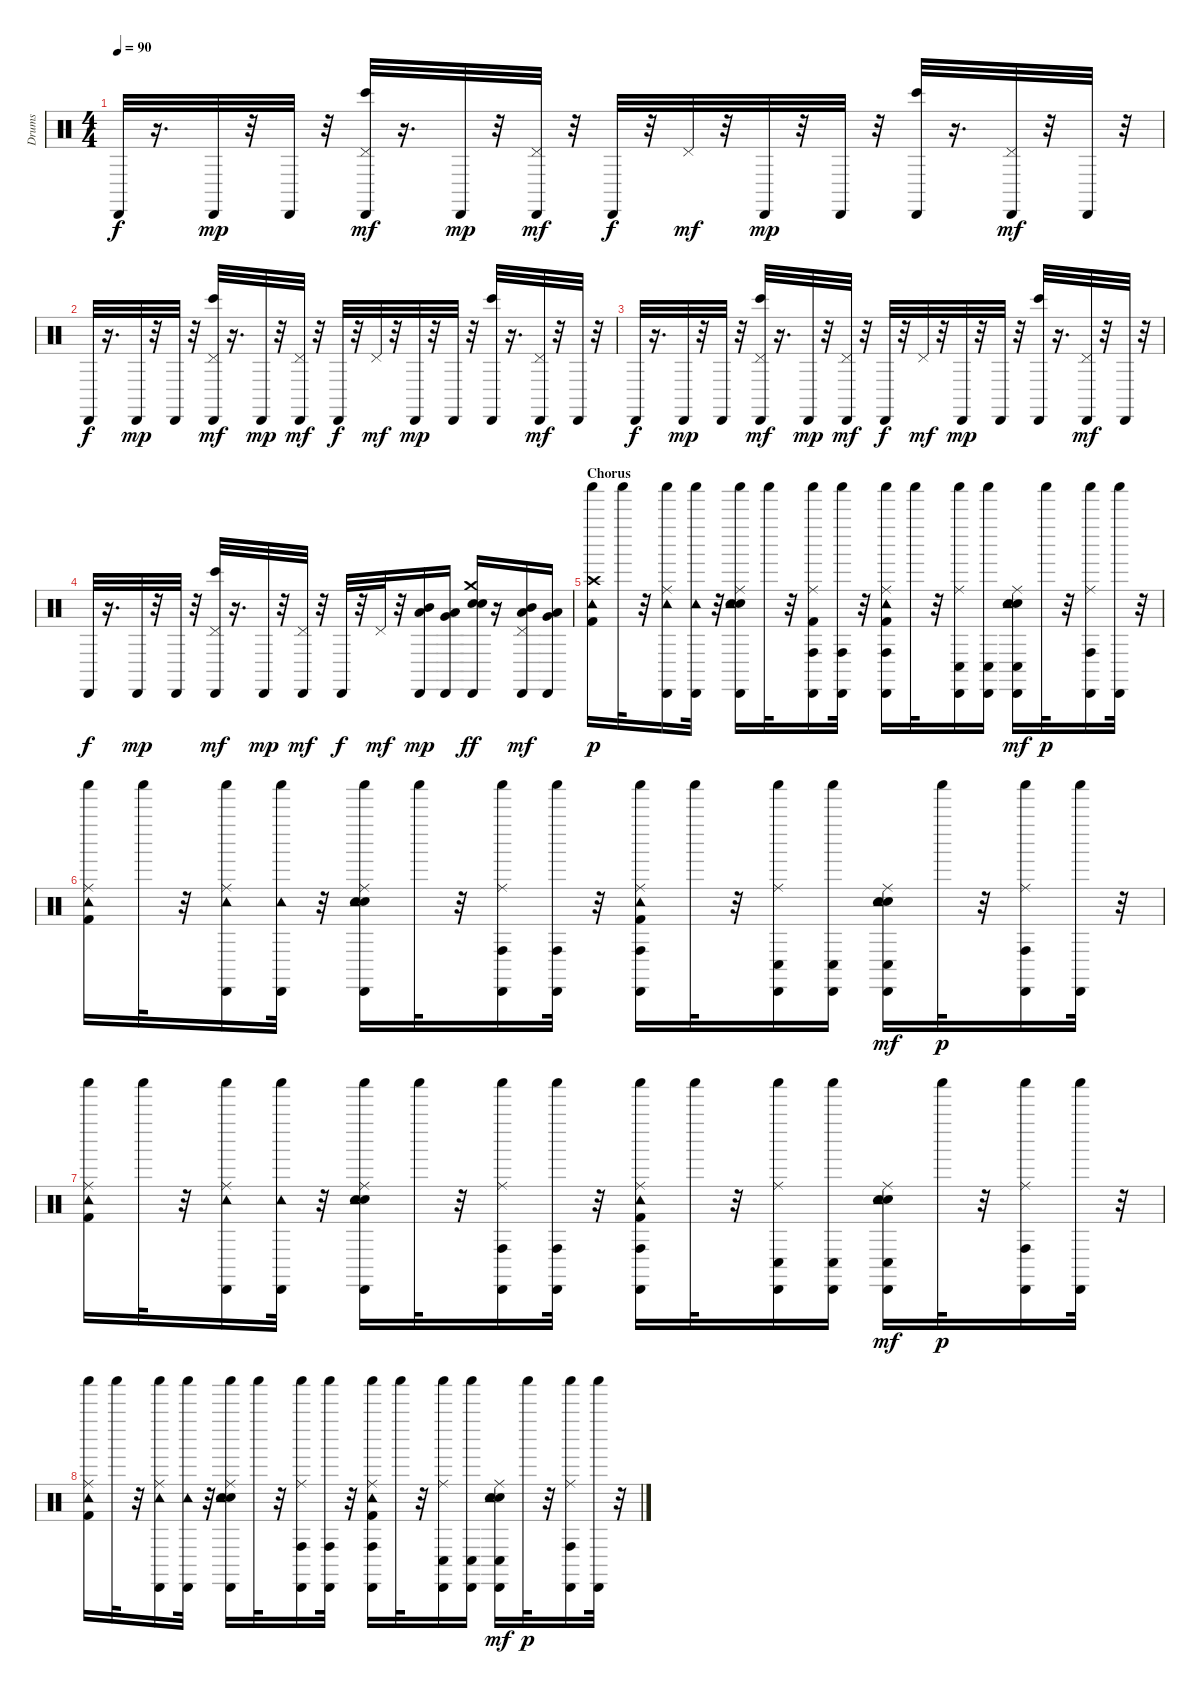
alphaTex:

\track ("Drums" "Drums") {instrument percussion}
\staff {score}
\articulation defaults
\ts (4 4)
\tempo 90
\clef neutral
\ks c "Cabasa (hit)".32{dy f}
r.16{d} "Cabasa (hit)".32{dy mp} r.32 "Cabasa (hit)".32 r.32 ("Bongo High (hit)" "Cabasa (hit)" "Pedal Hi-Hat (hit)").32{dy mf} r.16{d} "Cabasa (hit)".32{dy mp} r.32 ("Cabasa (hit)" "Pedal Hi-Hat (hit)").32{dy mf} r.32 "Cabasa (hit)".32{dy f} r.32 "Pedal Hi-Hat (hit)".32{dy mf} r.32 "Cabasa (hit)".32{dy mp} r.32 "Cabasa (hit)".32 r.32 ("Bongo High (hit)" "Cabasa (hit)").32 r.16{d} ("Cabasa (hit)" "Pedal Hi-Hat (hit)").32{dy mf} r.32 "Cabasa (hit)".32 r.32 |
"Cabasa (hit)".32{dy f} r.16{d} "Cabasa (hit)".32{dy mp} r.32 "Cabasa (hit)".32 r.32 ("Bongo High (hit)" "Cabasa (hit)" "Pedal Hi-Hat (hit)").32{dy mf} r.16{d} "Cabasa (hit)".32{dy mp} r.32 ("Cabasa (hit)" "Pedal Hi-Hat (hit)").32{dy mf} r.32 "Cabasa (hit)".32{dy f} r.32 "Pedal Hi-Hat (hit)".32{dy mf} r.32 "Cabasa (hit)".32{dy mp} r.32 "Cabasa (hit)".32 r.32 ("Bongo High (hit)" "Cabasa (hit)").32 r.16{d} ("Cabasa (hit)" "Pedal Hi-Hat (hit)").32{dy mf} r.32 "Cabasa (hit)".32 r.32 |
"Cabasa (hit)".32{dy f} r.16{d} "Cabasa (hit)".32{dy mp} r.32 "Cabasa (hit)".32 r.32 ("Bongo High (hit)" "Cabasa (hit)" "Pedal Hi-Hat (hit)").32{dy mf} r.16{d} "Cabasa (hit)".32{dy mp} r.32 ("Cabasa (hit)" "Pedal Hi-Hat (hit)").32{dy mf} r.32 "Cabasa (hit)".32{dy f} r.32 "Pedal Hi-Hat (hit)".32{dy mf} r.32 "Cabasa (hit)".32{dy mp} r.32 "Cabasa (hit)".32 r.32 ("Bongo High (hit)" "Cabasa (hit)").32 r.16{d} ("Cabasa (hit)" "Pedal Hi-Hat (hit)").32{dy mf} r.32 "Cabasa (hit)".32 r.32 |
"Cabasa (hit)".32{dy f} r.16{d} "Cabasa (hit)".32{dy mp} r.32 "Cabasa (hit)".32 r.32 ("Bongo High (hit)" "Cabasa (hit)" "Pedal Hi-Hat (hit)").32{dy mf} r.16{d} "Cabasa (hit)".32{dy mp} r.32 ("Cabasa (hit)" "Pedal Hi-Hat (hit)").32{dy mf} r.32 "Cabasa (hit)".32{dy f} r.32 "Pedal Hi-Hat (hit)".32{dy mf} r.32 ("Mid Tom (hit)" "Low Tom (hit)" "Cabasa (hit)").16{dy mp} ("Low Tom (hit)" "Cabasa (hit)" "Very Low Tom (hit)").16 ("Electric Snare (hit)" "Crash medium (hit)" "Snare (hit) 2" "Cabasa (hit)").16{dy ff} r.16 ("Mid Tom (hit)" "Low Tom (hit)" "Cabasa (hit)" "Pedal Hi-Hat (hit)").16{dy mf} ("Low Tom (hit)" "Very Low Tom (hit)" "Cabasa (hit)").16 |
\section ("" "Chorus")
("Crash high (hit)" "Kick (hit) 2" "Tambourine (hit)" "Shaker (hit)").16{dy p} "Shaker (hit)".32 r.32 ("Ride (middle)" "Tambourine (hit)" "Cabasa (hit)" "Shaker (hit)").16 ("Tambourine (hit)" "Cabasa (hit)" "Shaker (hit)").32 r.32 ("Electric Snare (hit)" "Ride (middle)" "Snare (hit) 2" "Tambourine (hit)" "Cabasa (hit)" "Shaker (hit)").16 "Shaker (hit)".32 r.32 ("Ride (middle)" "Kick (hit) 2" "Cabasa (hit)" "Conga high (hit)" "Shaker (hit)").16 ("Cabasa (hit)" "Conga high (hit)" "Shaker (hit)").32 r.32 ("Ride (middle)" "Kick (hit) 2" "Cabasa (hit)" "Conga high (hit)" "Tambourine (hit)" "Shaker (hit)").16 "Shaker (hit)".32 r.32 ("Ride (middle)" "Cabasa (hit)" "Conga low (hit)" "Shaker (hit)").16 ("Cabasa (hit)" "Conga low (hit)" "Shaker (hit)").16 ("Electric Snare (hit)" "Ride (middle)" "Snare (hit) 2" "Cabasa (hit)" "Conga low (hit)" "Tambourine (hit)").16{dy mf} "Shaker (hit)".32{dy p} r.32 ("Ride (middle)" "Cabasa (hit)" "Conga high (hit)" "Shaker (hit)").16 ("Cabasa (hit)" "Shaker (hit)").32 r.32 |
("Ride (middle)" "Kick (hit) 2" "Tambourine (hit)" "Shaker (hit)").16 "Shaker (hit)".32 r.32 ("Ride (middle)" "Tambourine (hit)" "Cabasa (hit)" "Shaker (hit)").16 ("Tambourine (hit)" "Cabasa (hit)" "Shaker (hit)").32 r.32 ("Electric Snare (hit)" "Ride (middle)" "Snare (hit) 2" "Tambourine (hit)" "Cabasa (hit)" "Shaker (hit)").16 "Shaker (hit)".32 r.32 ("Ride (middle)" "Cabasa (hit)" "Conga high (hit)" "Shaker (hit)").16 ("Cabasa (hit)" "Conga high (hit)" "Shaker (hit)").32 r.32 ("Ride (middle)" "Kick (hit) 2" "Cabasa (hit)" "Conga high (hit)" "Tambourine (hit)" "Shaker (hit)").16 "Shaker (hit)".32 r.32 ("Ride (middle)" "Cabasa (hit)" "Conga low (hit)" "Shaker (hit)").16 ("Cabasa (hit)" "Conga low (hit)" "Shaker (hit)").16 ("Electric Snare (hit)" "Ride (middle)" "Snare (hit) 2" "Cabasa (hit)" "Conga low (hit)" "Tambourine (hit)").16{dy mf} "Shaker (hit)".32{dy p} r.32 ("Ride (middle)" "Cabasa (hit)" "Conga high (hit)" "Shaker (hit)").16 ("Cabasa (hit)" "Shaker (hit)").32 r.32 |
("Ride (middle)" "Kick (hit) 2" "Tambourine (hit)" "Shaker (hit)").16 "Shaker (hit)".32 r.32 ("Ride (middle)" "Tambourine (hit)" "Cabasa (hit)" "Shaker (hit)").16 ("Tambourine (hit)" "Cabasa (hit)" "Shaker (hit)").32 r.32 ("Electric Snare (hit)" "Ride (middle)" "Snare (hit) 2" "Tambourine (hit)" "Cabasa (hit)" "Shaker (hit)").16 "Shaker (hit)".32 r.32 ("Ride (middle)" "Cabasa (hit)" "Conga high (hit)" "Shaker (hit)").16 ("Cabasa (hit)" "Conga high (hit)" "Shaker (hit)").32 r.32 ("Ride (middle)" "Kick (hit) 2" "Cabasa (hit)" "Conga high (hit)" "Tambourine (hit)" "Shaker (hit)").16 "Shaker (hit)".32 r.32 ("Ride (middle)" "Cabasa (hit)" "Conga low (hit)" "Shaker (hit)").16 ("Cabasa (hit)" "Conga low (hit)" "Shaker (hit)").16 ("Electric Snare (hit)" "Ride (middle)" "Snare (hit) 2" "Cabasa (hit)" "Conga low (hit)" "Tambourine (hit)").16{dy mf} "Shaker (hit)".32{dy p} r.32 ("Ride (middle)" "Cabasa (hit)" "Conga high (hit)" "Shaker (hit)").16 ("Cabasa (hit)" "Shaker (hit)").32 r.32 |
("Ride (middle)" "Kick (hit) 2" "Tambourine (hit)" "Shaker (hit)").16 "Shaker (hit)".32 r.32 ("Ride (middle)" "Tambourine (hit)" "Cabasa (hit)" "Shaker (hit)").16 ("Tambourine (hit)" "Cabasa (hit)" "Shaker (hit)").32 r.32 ("Electric Snare (hit)" "Ride (middle)" "Snare (hit) 2" "Tambourine (hit)" "Cabasa (hit)" "Shaker (hit)").16 "Shaker (hit)".32 r.32 ("Ride (middle)" "Cabasa (hit)" "Conga high (hit)" "Shaker (hit)").16 ("Cabasa (hit)" "Conga high (hit)" "Shaker (hit)").32 r.32 ("Ride (middle)" "Kick (hit) 2" "Cabasa (hit)" "Conga high (hit)" "Tambourine (hit)" "Shaker (hit)").16 "Shaker (hit)".32 r.32 ("Ride (middle)" "Cabasa (hit)" "Conga low (hit)" "Shaker (hit)").16 ("Cabasa (hit)" "Conga low (hit)" "Shaker (hit)").16 ("Electric Snare (hit)" "Ride (middle)" "Snare (hit) 2" "Cabasa (hit)" "Conga low (hit)" "Tambourine (hit)").16{dy mf} "Shaker (hit)".32{dy p} r.32 ("Ride (middle)" "Cabasa (hit)" "Conga high (hit)" "Shaker (hit)").16 ("Cabasa (hit)" "Shaker (hit)").32 r.32
